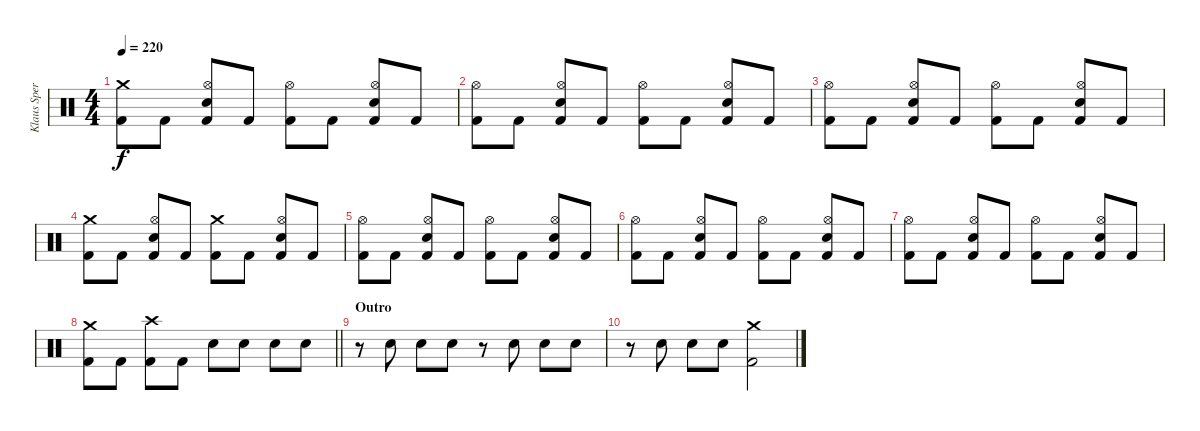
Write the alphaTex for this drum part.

\track ("Klaus Sperling" "Klaus Sper") {instrument percussion}
\staff {score}
\articulation defaults
\ts (4 4)
\tempo 220
\clef neutral
\ks c
("Crash medium (hit)" "Kick (hit) 2").8{dy f} "Kick (hit) 2".8 ("Hi-Hat (open)" "Electric Snare (hit)" "Kick (hit) 2").8 "Kick (hit) 2".8 ("Hi-Hat (open)" "Kick (hit) 2").8 "Kick (hit) 2".8 ("Hi-Hat (open)" "Electric Snare (hit)" "Kick (hit) 2").8 "Kick (hit) 2".8 |
("Hi-Hat (open)" "Kick (hit) 2").8 "Kick (hit) 2".8 ("Hi-Hat (open)" "Electric Snare (hit)" "Kick (hit) 2").8 "Kick (hit) 2".8 ("Hi-Hat (open)" "Kick (hit) 2").8 "Kick (hit) 2".8 ("Hi-Hat (open)" "Electric Snare (hit)" "Kick (hit) 2").8 "Kick (hit) 2".8 |
("Hi-Hat (open)" "Kick (hit) 2").8 "Kick (hit) 2".8 ("Hi-Hat (open)" "Electric Snare (hit)" "Kick (hit) 2").8 "Kick (hit) 2".8 ("Hi-Hat (open)" "Kick (hit) 2").8 "Kick (hit) 2".8 ("Hi-Hat (open)" "Electric Snare (hit)" "Kick (hit) 2").8 "Kick (hit) 2".8 |
("Crash medium (hit)" "Kick (hit) 2").8 "Kick (hit) 2".8 ("Hi-Hat (open)" "Electric Snare (hit)" "Kick (hit) 2").8 "Kick (hit) 2".8 ("Crash medium (hit)" "Kick (hit) 2").8 "Kick (hit) 2".8 ("Hi-Hat (open)" "Electric Snare (hit)" "Kick (hit) 2").8 "Kick (hit) 2".8 |
("Hi-Hat (open)" "Kick (hit) 2").8 "Kick (hit) 2".8 ("Hi-Hat (open)" "Electric Snare (hit)" "Kick (hit) 2").8 "Kick (hit) 2".8 ("Hi-Hat (open)" "Kick (hit) 2").8 "Kick (hit) 2".8 ("Hi-Hat (open)" "Electric Snare (hit)" "Kick (hit) 2").8 "Kick (hit) 2".8 |
("Hi-Hat (open)" "Kick (hit) 2").8 "Kick (hit) 2".8 ("Hi-Hat (open)" "Electric Snare (hit)" "Kick (hit) 2").8 "Kick (hit) 2".8 ("Hi-Hat (open)" "Kick (hit) 2").8 "Kick (hit) 2".8 ("Hi-Hat (open)" "Electric Snare (hit)" "Kick (hit) 2").8 "Kick (hit) 2".8 |
("Hi-Hat (open)" "Kick (hit) 2").8 "Kick (hit) 2".8 ("Hi-Hat (open)" "Electric Snare (hit)" "Kick (hit) 2").8 "Kick (hit) 2".8 ("Hi-Hat (open)" "Kick (hit) 2").8 "Kick (hit) 2".8 ("Hi-Hat (open)" "Electric Snare (hit)" "Kick (hit) 2").8 "Kick (hit) 2".8 |
\barLineRight lightlight
("Crash medium (hit)" "Kick (hit) 2").8 "Kick (hit) 2".8 ("Crash high (hit)" "Kick (hit) 2").8 "Kick (hit) 2".8 "Electric Snare (hit)".8 "Electric Snare (hit)".8 "Electric Snare (hit)".8 "Electric Snare (hit)".8 |
\section ("" "Outro")
r.8 "Electric Snare (hit)".8 "Electric Snare (hit)".8 "Electric Snare (hit)".8 r.8 "Electric Snare (hit)".8 "Electric Snare (hit)".8 "Electric Snare (hit)".8 |
r.8 "Electric Snare (hit)".8 "Electric Snare (hit)".8 "Electric Snare (hit)".8 ("Crash medium (hit)" "Kick (hit) 2").2
